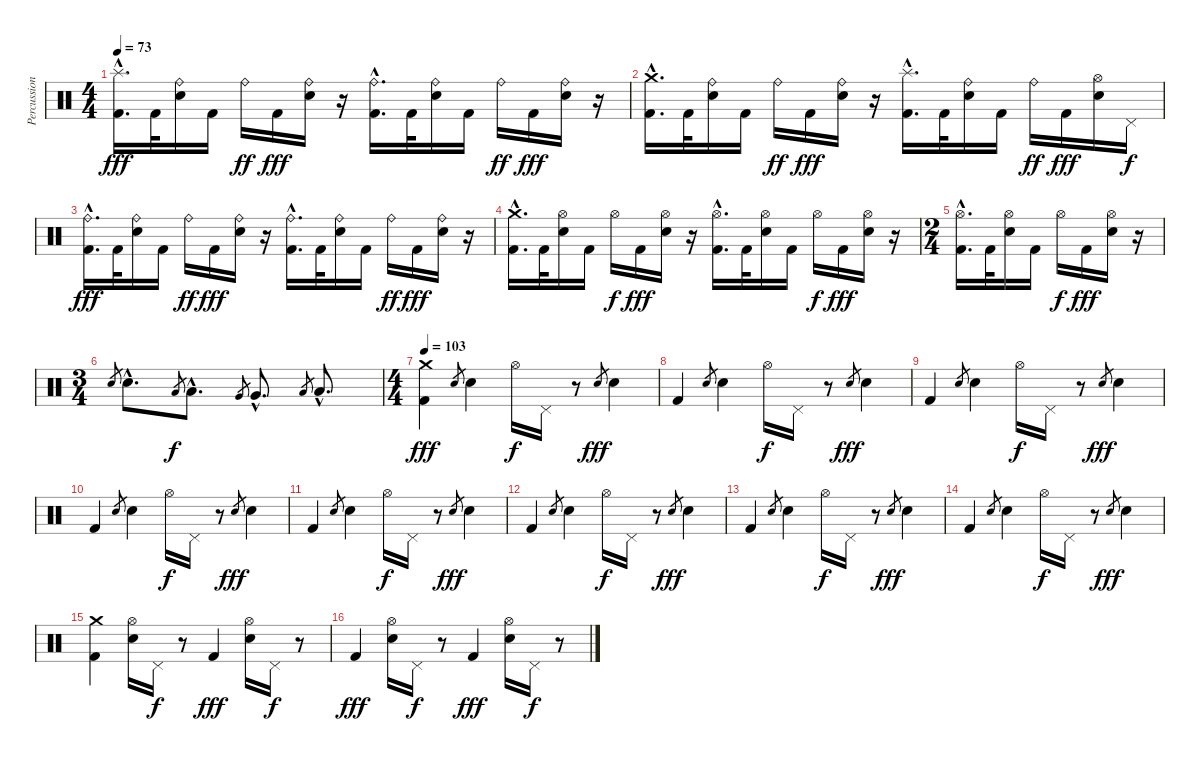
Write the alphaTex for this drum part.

\track ("Percussions" "Percussion") {instrument percussion}
\staff {score}
\articulation defaults
\ts (4 4)
\tempo 73
\clef neutral
\ks c
("Splash (hit)"{hac} "Kick (hit) 2"{hac}).16{d dy fff} "Kick (hit) 2".32 ("Ride (bell)" "Electric Snare (hit)").16 "Kick (hit) 2".16 "Ride (bell)".16{dy ff} "Kick (hit) 2".16{dy fff} ("Ride (bell)" "Electric Snare (hit)").16 r.16 ("Ride (bell)"{hac} "Kick (hit) 2"{hac}).16{d} "Kick (hit) 2".32 ("Ride (bell)" "Electric Snare (hit)").16 "Kick (hit) 2".16 "Ride (bell)".16{dy ff} "Kick (hit) 2".16{dy fff} ("Ride (bell)" "Electric Snare (hit)").16 r.16 |
("Crash medium (hit)"{hac} "Kick (hit) 2"{hac}).16{d} "Kick (hit) 2".32 ("Ride (bell)" "Electric Snare (hit)").16 "Kick (hit) 2".16 "Ride (bell)".16{dy ff} "Kick (hit) 2".16{dy fff} ("Ride (bell)" "Electric Snare (hit)").16 r.16 ("Splash (hit)"{hac} "Kick (hit) 2"{hac}).16{d} "Kick (hit) 2".32 ("Ride (bell)" "Electric Snare (hit)").16 "Kick (hit) 2".16 "Ride (bell)".16{dy ff} "Kick (hit) 2".16{dy fff} ("Hi-Hat (open)" "Electric Snare (hit)").16 "Pedal Hi-Hat (hit)".16{dy f} |
("Ride (bell)"{hac} "Kick (hit) 2"{hac}).16{d dy fff} "Kick (hit) 2".32 ("Ride (bell)" "Electric Snare (hit)").16 "Kick (hit) 2".16 "Ride (bell)".16{dy ff} "Kick (hit) 2".16{dy fff} ("Ride (bell)" "Electric Snare (hit)").16 r.16 ("Ride (bell)"{hac} "Kick (hit) 2"{hac}).16{d} "Kick (hit) 2".32 ("Ride (bell)" "Electric Snare (hit)").16 "Kick (hit) 2".16 "Ride (bell)".16{dy ff} "Kick (hit) 2".16{dy fff} ("Ride (bell)" "Electric Snare (hit)").16 r.16 |
("Crash medium (hit)"{hac} "Kick (hit) 2"{hac}).16{d} "Kick (hit) 2".32 ("Hi-Hat (open)" "Electric Snare (hit)").16 "Kick (hit) 2".16 "Hi-Hat (open)".16{dy f} "Kick (hit) 2".16{dy fff} ("Hi-Hat (open)" "Electric Snare (hit)").16 r.16 ("Hi-Hat (open)"{hac} "Kick (hit) 2"{hac}).16{d} "Kick (hit) 2".32 ("Hi-Hat (open)" "Electric Snare (hit)").16 "Kick (hit) 2".16 "Hi-Hat (open)".16{dy f} "Kick (hit) 2".16{dy fff} ("Hi-Hat (open)" "Electric Snare (hit)").16 r.16 |
\ts (2 4)
("Hi-Hat (open)"{hac} "Kick (hit) 2"{hac}).16{d} "Kick (hit) 2".32 ("Hi-Hat (open)" "Electric Snare (hit)").16 "Kick (hit) 2".16 "Hi-Hat (open)".16{dy f} "Kick (hit) 2".16{dy fff} ("Hi-Hat (open)" "Electric Snare (hit)").16 r.16 |
\ts (3 4)
"Electric Snare (hit)".8{gr} "Electric Snare (hit)"{hac}.8{d} "Low Tom (hit)".8{gr dy f} "Low Tom (hit)"{hac}.8{d} "Very Low Tom (hit)".8{gr} "Very Low Tom (hit)"{hac}.8{d} "Low Floor Tom (hit)".8{gr} "Low Floor Tom (hit)"{hac}.8{d} |
\ts (4 4)
\tempo 103
("Crash medium (hit)" "Kick (hit) 2").4{dy fff} "Electric Snare (hit)".8{gr} "Electric Snare (hit)".4 "Hi-Hat (open)".16{dy f} "Pedal Hi-Hat (hit)".16 r.8 "Electric Snare (hit)".8{gr dy fff} "Electric Snare (hit)".4 |
"Kick (hit) 2".4 "Electric Snare (hit)".8{gr} "Electric Snare (hit)".4 "Hi-Hat (open)".16{dy f} "Pedal Hi-Hat (hit)".16 r.8 "Electric Snare (hit)".8{gr dy fff} "Electric Snare (hit)".4 |
"Kick (hit) 2".4 "Electric Snare (hit)".8{gr} "Electric Snare (hit)".4 "Hi-Hat (open)".16{dy f} "Pedal Hi-Hat (hit)".16 r.8 "Electric Snare (hit)".8{gr dy fff} "Electric Snare (hit)".4 |
"Kick (hit) 2".4 "Electric Snare (hit)".8{gr} "Electric Snare (hit)".4 "Hi-Hat (open)".16{dy f} "Pedal Hi-Hat (hit)".16 r.8 "Electric Snare (hit)".8{gr dy fff} "Electric Snare (hit)".4 |
"Kick (hit) 2".4 "Electric Snare (hit)".8{gr} "Electric Snare (hit)".4 "Hi-Hat (open)".16{dy f} "Pedal Hi-Hat (hit)".16 r.8 "Electric Snare (hit)".8{gr dy fff} "Electric Snare (hit)".4 |
"Kick (hit) 2".4 "Electric Snare (hit)".8{gr} "Electric Snare (hit)".4 "Hi-Hat (open)".16{dy f} "Pedal Hi-Hat (hit)".16 r.8 "Electric Snare (hit)".8{gr dy fff} "Electric Snare (hit)".4 |
"Kick (hit) 2".4 "Electric Snare (hit)".8{gr} "Electric Snare (hit)".4 "Hi-Hat (open)".16{dy f} "Pedal Hi-Hat (hit)".16 r.8 "Electric Snare (hit)".8{gr dy fff} "Electric Snare (hit)".4 |
"Kick (hit) 2".4 "Electric Snare (hit)".8{gr} "Electric Snare (hit)".4 "Hi-Hat (open)".16{dy f} "Pedal Hi-Hat (hit)".16 r.8 "Electric Snare (hit)".8{gr dy fff} "Electric Snare (hit)".4 |
("Crash medium (hit)" "Kick (hit) 2").4 ("Hi-Hat (open)" "Electric Snare (hit)").16 "Pedal Hi-Hat (hit)".16{dy f} r.8 "Kick (hit) 2".4{dy fff} ("Hi-Hat (open)" "Electric Snare (hit)").16 "Pedal Hi-Hat (hit)".16{dy f} r.8 |
"Kick (hit) 2".4{dy fff} ("Hi-Hat (open)" "Electric Snare (hit)").16 "Pedal Hi-Hat (hit)".16{dy f} r.8 "Kick (hit) 2".4{dy fff} ("Hi-Hat (open)" "Electric Snare (hit)").16 "Pedal Hi-Hat (hit)".16{dy f} r.8
